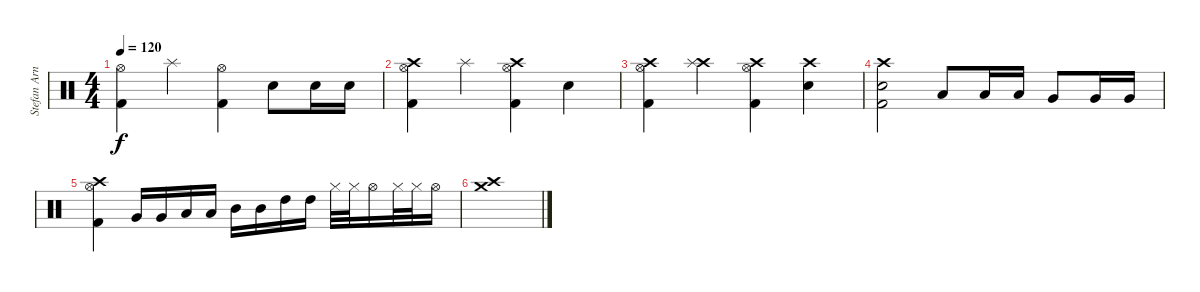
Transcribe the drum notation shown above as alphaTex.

\track ("Stefan Arnold Drums" "Stefan Arn") {instrument percussion}
\staff {score}
\articulation defaults
\ts (4 4)
\tempo 120
\clef neutral
\ks c
("Hi-Hat (open)" "Kick (hit) 2").4{dy f} "Splash (hit)".4 ("Hi-Hat (open)" "Kick (hit) 2").4 "Electric Snare (hit)".8 "Snare (hit) 2".16 "Snare (hit) 2".16 |
("Crash high (hit)" "Hi-Hat (open)" "Kick (hit) 2").4 "Splash (hit)".4 ("Crash high (hit)" "Hi-Hat (open)" "Kick (hit) 2").4 "Electric Snare (hit)".4 |
("Crash high (hit)" "Hi-Hat (open)" "Kick (hit) 2").4 ("Crash high (hit)" "Splash (hit)").4 ("Crash high (hit)" "Hi-Hat (open)" "Kick (hit) 2").4 ("Crash high (hit)" "Electric Snare (hit)").4 |
("Crash high (hit)" "Kick (hit) 2" "Electric Snare (hit)").2 "Low Tom (hit)".8 "Low Tom (hit)".16 "Low Tom (hit)".16 "Very Low Tom (hit)".8 "Very Low Tom (hit)".16 "Very Low Tom (hit)".16 |
("Crash high (hit)" "Hi-Hat (open)" "Kick (hit) 2").4 "Very Low Tom (hit)".16 "Very Low Tom (hit)".16 "Low Tom (hit)".16 "Low Tom (hit)".16 "Mid Tom (hit)".16 "Mid Tom (hit)".16 "High Tom (hit)".16 "High Tom (hit)".16 "Hi-Hat (closed)".32 "Hi-Hat (closed)".32 "Hi-Hat (open)".16 "Hi-Hat (closed)".32 "Hi-Hat (closed)".32 "Hi-Hat (open)".16 |
("Crash medium (hit)" "Crash high (hit)").1
